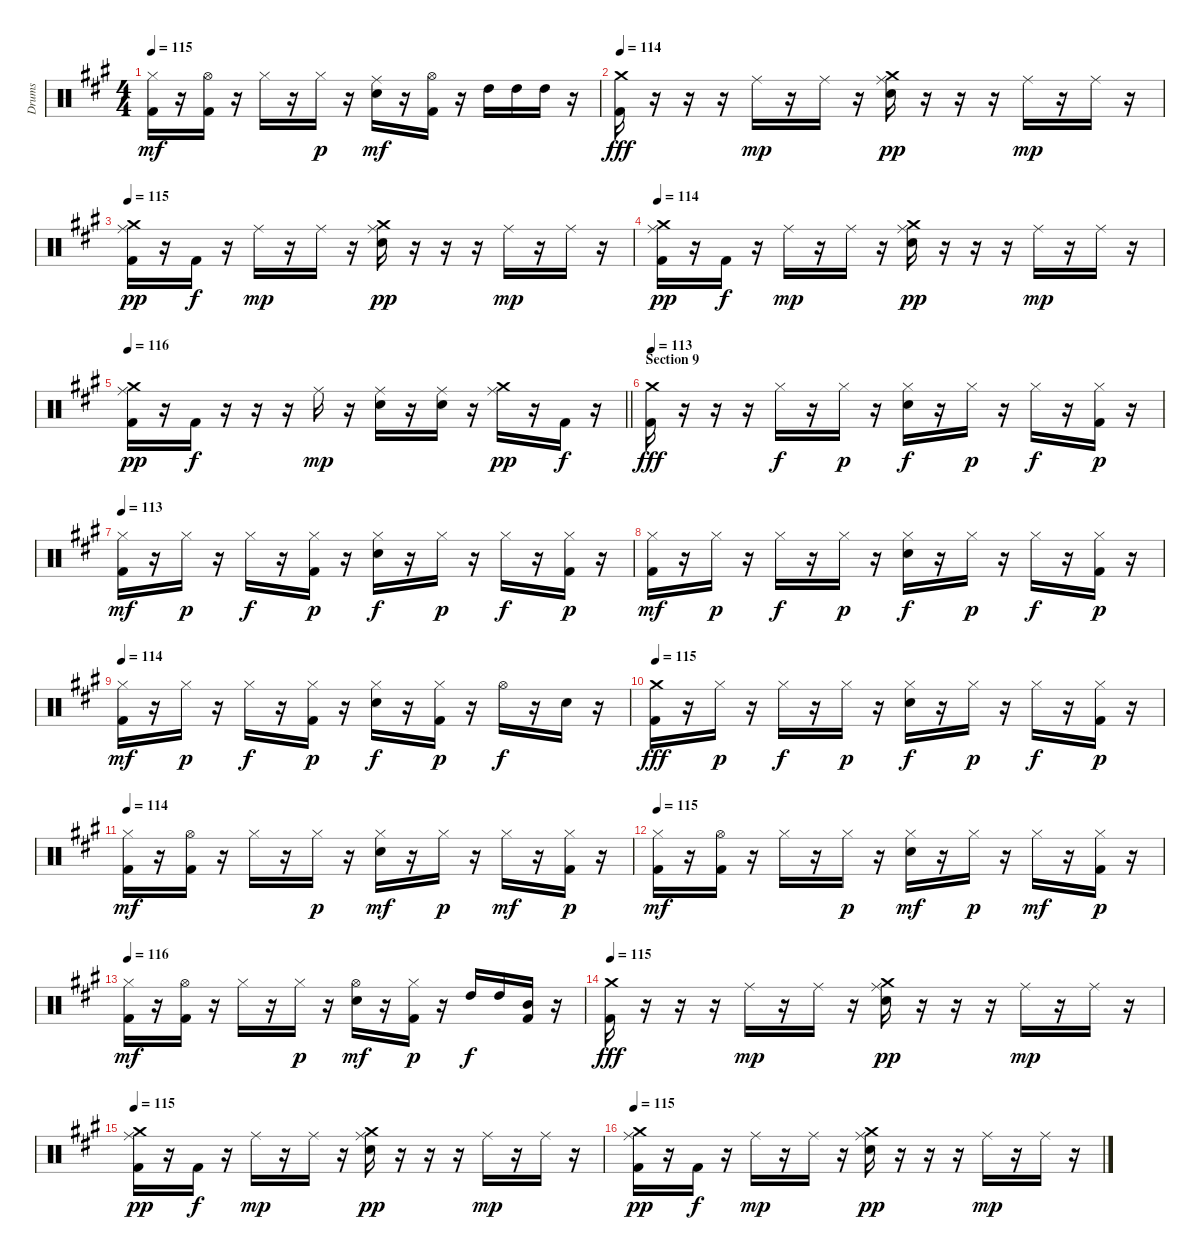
\track ("Drums" "Drums") {instrument percussion}
\staff {score}
\articulation defaults
\ts (4 4)
\tempo 115
\clef neutral
\ks f#minor
("Hi-Hat (closed)" "Kick (hit) 2").16{dy mf} r.16 ("Hi-Hat (open)" "Kick (hit) 2").16 r.16 "Hi-Hat (closed)".16 r.16 "Hi-Hat (closed)".16{dy p} r.16 ("Ride (middle)" "Electric Snare (hit)").16{dy mf} r.16 ("Hi-Hat (open)" "Kick (hit) 2").16 r.16 "High Tom (hit)".16 "High Tom (hit)".16 "High Tom (hit)".16 r.16 |
\tempo 114
("Crash medium (hit)" "Kick (hit) 2").16{dy fff} r.16 r.16 r.16 "Ride (middle)".16{dy mp} r.16 "Ride (middle)".16 r.16 ("Ride (middle)" "Crash medium (hit)" "Electric Snare (hit)").16{dy pp} r.16 r.16 r.16 "Ride (middle)".16{dy mp} r.16 "Ride (middle)".16 r.16 |
\tempo 115
("Ride (middle)" "Crash medium (hit)" "Kick (hit) 2").16{dy pp} r.16 "Kick (hit) 2".16{dy f} r.16 "Ride (middle)".16{dy mp} r.16 "Ride (middle)".16 r.16 ("Ride (middle)" "Crash medium (hit)" "Electric Snare (hit)").16{dy pp} r.16 r.16 r.16 "Ride (middle)".16{dy mp} r.16 "Ride (middle)".16 r.16 |
\tempo 114
("Ride (middle)" "Crash medium (hit)" "Kick (hit) 2").16{dy pp} r.16 "Kick (hit) 2".16{dy f} r.16 "Ride (middle)".16{dy mp} r.16 "Ride (middle)".16 r.16 ("Ride (middle)" "Crash medium (hit)" "Electric Snare (hit)").16{dy pp} r.16 r.16 r.16 "Ride (middle)".16{dy mp} r.16 "Ride (middle)".16 r.16 |
\tempo 116
\barLineRight lightlight
("Ride (middle)" "Crash medium (hit)" "Kick (hit) 2").16{dy pp} r.16 "Kick (hit) 2".16{dy f} r.16 r.16 r.16 "Ride (middle)".16{dy mp} r.16 ("Ride (middle)" "Electric Snare (hit)").16 r.16 ("Ride (middle)" "Electric Snare (hit)").16 r.16 ("Ride (middle)" "Crash medium (hit)").16{dy pp} r.16 "Kick (hit) 2".16{dy f} r.16 |
\section ("" "Section 9")
\tempo 113
("Crash medium (hit)" "Kick (hit) 2").16{dy fff} r.16 r.16 r.16 "Hi-Hat (closed)".16{dy f} r.16 "Hi-Hat (closed)".16{dy p} r.16 ("Hi-Hat (closed)" "Electric Snare (hit)").16{dy f} r.16 "Hi-Hat (closed)".16{dy p} r.16 "Hi-Hat (closed)".16{dy f} r.16 ("Hi-Hat (closed)" "Kick (hit) 2").16{dy p} r.16 |
\tempo 113
("Hi-Hat (closed)" "Kick (hit) 2").16{dy mf} r.16 "Hi-Hat (closed)".16{dy p} r.16 "Hi-Hat (closed)".16{dy f} r.16 ("Hi-Hat (closed)" "Kick (hit) 2").16{dy p} r.16 ("Hi-Hat (closed)" "Electric Snare (hit)").16{dy f} r.16 "Hi-Hat (closed)".16{dy p} r.16 "Hi-Hat (closed)".16{dy f} r.16 ("Hi-Hat (closed)" "Kick (hit) 2").16{dy p} r.16 |
("Hi-Hat (closed)" "Kick (hit) 2").16{dy mf} r.16 "Hi-Hat (closed)".16{dy p} r.16 "Hi-Hat (closed)".16{dy f} r.16 "Hi-Hat (closed)".16{dy p} r.16 ("Hi-Hat (closed)" "Electric Snare (hit)").16{dy f} r.16 "Hi-Hat (closed)".16{dy p} r.16 "Hi-Hat (closed)".16{dy f} r.16 ("Hi-Hat (closed)" "Kick (hit) 2").16{dy p} r.16 |
\tempo 114
("Hi-Hat (closed)" "Kick (hit) 2").16{dy mf} r.16 "Hi-Hat (closed)".16{dy p} r.16 "Hi-Hat (closed)".16{dy f} r.16 ("Hi-Hat (closed)" "Kick (hit) 2").16{dy p} r.16 ("Hi-Hat (closed)" "Electric Snare (hit)").16{dy f} r.16 ("Hi-Hat (closed)" "Kick (hit) 2").16{dy p} r.16 "Hi-Hat (open)".16{dy f} r.16 "Electric Snare (hit)".16 r.16 |
\tempo 115
("Crash medium (hit)" "Kick (hit) 2").16{dy fff} r.16 "Hi-Hat (closed)".16{dy p} r.16 "Hi-Hat (closed)".16{dy f} r.16 "Hi-Hat (closed)".16{dy p} r.16 ("Hi-Hat (closed)" "Electric Snare (hit)").16{dy f} r.16 "Hi-Hat (closed)".16{dy p} r.16 "Hi-Hat (closed)".16{dy f} r.16 ("Hi-Hat (closed)" "Kick (hit) 2").16{dy p} r.16 |
\tempo 114
("Hi-Hat (closed)" "Kick (hit) 2").16{dy mf} r.16 ("Hi-Hat (open)" "Kick (hit) 2").16 r.16 "Hi-Hat (closed)".16 r.16 "Hi-Hat (closed)".16{dy p} r.16 ("Hi-Hat (closed)" "Electric Snare (hit)").16{dy mf} r.16 "Hi-Hat (closed)".16{dy p} r.16 "Hi-Hat (closed)".16{dy mf} r.16 ("Hi-Hat (closed)" "Kick (hit) 2").16{dy p} r.16 |
\tempo 115
("Hi-Hat (closed)" "Kick (hit) 2").16{dy mf} r.16 ("Hi-Hat (open)" "Kick (hit) 2").16 r.16 "Hi-Hat (closed)".16 r.16 "Hi-Hat (closed)".16{dy p} r.16 ("Hi-Hat (closed)" "Electric Snare (hit)").16{dy mf} r.16 "Hi-Hat (closed)".16{dy p} r.16 "Hi-Hat (closed)".16{dy mf} r.16 ("Hi-Hat (closed)" "Kick (hit) 2").16{dy p} r.16 |
\tempo 116
("Hi-Hat (closed)" "Kick (hit) 2").16{dy mf} r.16 ("Hi-Hat (open)" "Kick (hit) 2").16 r.16 "Hi-Hat (closed)".16 r.16 "Hi-Hat (closed)".16{dy p} r.16 ("Hi-Hat (open)" "Electric Snare (hit)").16{dy mf} r.16 ("Hi-Hat (closed)" "Kick (hit) 2").16{dy p} r.16 "High Tom (hit)".16{dy f} "High Tom (hit)".16 ("Mid Tom (hit)" "Kick (hit) 2").16 r.16 |
\tempo 115
("Crash medium (hit)" "Kick (hit) 2").16{dy fff} r.16 r.16 r.16 "Ride (middle)".16{dy mp} r.16 "Ride (middle)".16 r.16 ("Ride (middle)" "Crash medium (hit)" "Electric Snare (hit)").16{dy pp} r.16 r.16 r.16 "Ride (middle)".16{dy mp} r.16 "Ride (middle)".16 r.16 |
\tempo 115
("Ride (middle)" "Crash medium (hit)" "Kick (hit) 2").16{dy pp} r.16 "Kick (hit) 2".16{dy f} r.16 "Ride (middle)".16{dy mp} r.16 "Ride (middle)".16 r.16 ("Ride (middle)" "Crash medium (hit)" "Electric Snare (hit)").16{dy pp} r.16 r.16 r.16 "Ride (middle)".16{dy mp} r.16 "Ride (middle)".16 r.16 |
\tempo 115
("Ride (middle)" "Crash medium (hit)" "Kick (hit) 2").16{dy pp} r.16 "Kick (hit) 2".16{dy f} r.16 "Ride (middle)".16{dy mp} r.16 "Ride (middle)".16 r.16 ("Ride (middle)" "Crash medium (hit)" "Electric Snare (hit)").16{dy pp} r.16 r.16 r.16 "Ride (middle)".16{dy mp} r.16 "Ride (middle)".16 r.16
